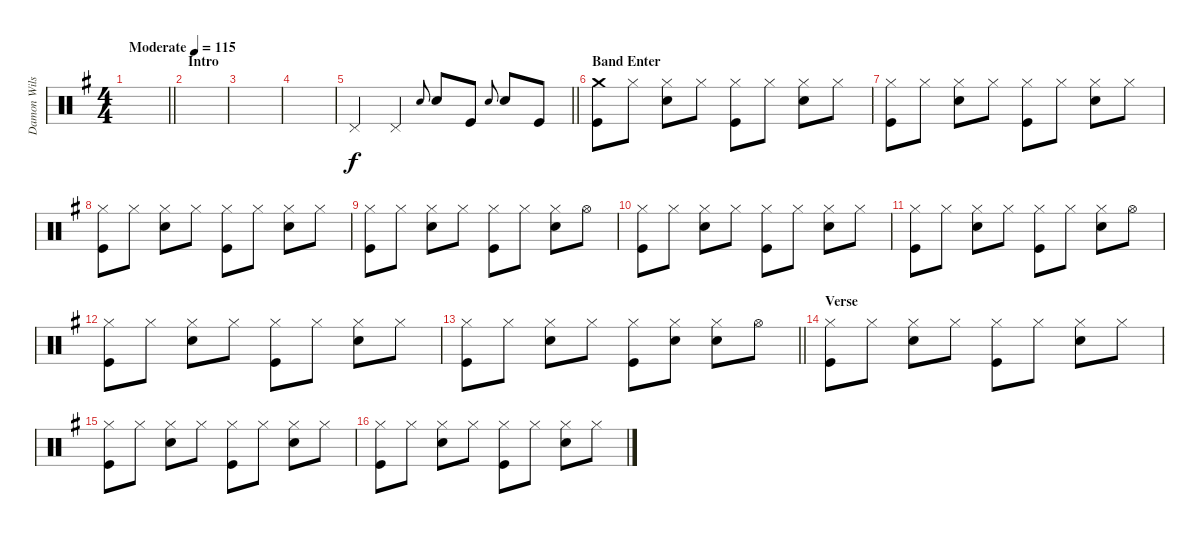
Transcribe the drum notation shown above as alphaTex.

\track ("Damon Wilson" "Damon Wils") {instrument percussion}
\staff {score}
\articulation defaults
\ts (4 4)
\tempo (115 "Moderate")
\clef neutral
\barLineRight lightlight
\ks g
|
\section ("" "Intro")
|
|
|
\barLineRight lightlight "Pedal Hi-Hat (hit)".4 "Pedal Hi-Hat (hit)".4 "Electric Snare (hit)".8{gr onbeat} "Electric Snare (hit)".8 "Kick (hit)".8 "Electric Snare (hit)".8{gr onbeat} "Electric Snare (hit)".8 "Kick (hit)".8
|
\section ("" "Band Enter")
("Crash medium (hit)" "Kick (hit)").8 "Hi-Hat (closed)".8 ("Hi-Hat (closed)" "Electric Snare (hit)").8 "Hi-Hat (closed)".8 ("Hi-Hat (closed)" "Kick (hit)").8 "Hi-Hat (closed)".8 ("Hi-Hat (closed)" "Electric Snare (hit)").8 "Hi-Hat (closed)".8 |
("Hi-Hat (closed)" "Kick (hit)").8 "Hi-Hat (closed)".8 ("Hi-Hat (closed)" "Electric Snare (hit)").8 "Hi-Hat (closed)".8 ("Hi-Hat (closed)" "Kick (hit)").8 "Hi-Hat (closed)".8 ("Hi-Hat (closed)" "Electric Snare (hit)").8 "Hi-Hat (closed)".8 |
("Hi-Hat (closed)" "Kick (hit)").8 "Hi-Hat (closed)".8 ("Hi-Hat (closed)" "Electric Snare (hit)").8 "Hi-Hat (closed)".8 ("Hi-Hat (closed)" "Kick (hit)").8 "Hi-Hat (closed)".8 ("Hi-Hat (closed)" "Electric Snare (hit)").8 "Hi-Hat (closed)".8 |
("Hi-Hat (closed)" "Kick (hit)").8 "Hi-Hat (closed)".8 ("Hi-Hat (closed)" "Electric Snare (hit)").8 "Hi-Hat (closed)".8 ("Hi-Hat (closed)" "Kick (hit)").8 "Hi-Hat (closed)".8 ("Hi-Hat (closed)" "Electric Snare (hit)").8 "Hi-Hat (open)".8 |
("Hi-Hat (closed)" "Kick (hit)").8 "Hi-Hat (closed)".8 ("Hi-Hat (closed)" "Electric Snare (hit)").8 "Hi-Hat (closed)".8 ("Hi-Hat (closed)" "Kick (hit)").8 "Hi-Hat (closed)".8 ("Hi-Hat (closed)" "Electric Snare (hit)").8 "Hi-Hat (closed)".8 |
("Hi-Hat (closed)" "Kick (hit)").8 "Hi-Hat (closed)".8 ("Hi-Hat (closed)" "Electric Snare (hit)").8 "Hi-Hat (closed)".8 ("Hi-Hat (closed)" "Kick (hit)").8 "Hi-Hat (closed)".8 ("Hi-Hat (closed)" "Electric Snare (hit)").8 "Hi-Hat (open)".8 |
("Hi-Hat (closed)" "Kick (hit)").8 "Hi-Hat (closed)".8 ("Hi-Hat (closed)" "Electric Snare (hit)").8 "Hi-Hat (closed)".8 ("Hi-Hat (closed)" "Kick (hit)").8 "Hi-Hat (closed)".8 ("Hi-Hat (closed)" "Electric Snare (hit)").8 "Hi-Hat (closed)".8 |
\barLineRight lightlight
("Hi-Hat (closed)" "Kick (hit)").8 "Hi-Hat (closed)".8 ("Hi-Hat (closed)" "Electric Snare (hit)").8 "Hi-Hat (closed)".8 ("Hi-Hat (closed)" "Kick (hit)").8 ("Hi-Hat (closed)" "Electric Snare (hit)").8 ("Hi-Hat (closed)" "Electric Snare (hit)").8 "Hi-Hat (open)".8 |
\section ("" "Verse")
("Hi-Hat (closed)" "Kick (hit)").8 "Hi-Hat (closed)".8 ("Hi-Hat (closed)" "Electric Snare (hit)").8 "Hi-Hat (closed)".8 ("Hi-Hat (closed)" "Kick (hit)").8 "Hi-Hat (closed)".8 ("Hi-Hat (closed)" "Electric Snare (hit)").8 "Hi-Hat (closed)".8 |
("Hi-Hat (closed)" "Kick (hit)").8 "Hi-Hat (closed)".8 ("Hi-Hat (closed)" "Electric Snare (hit)").8 "Hi-Hat (closed)".8 ("Hi-Hat (closed)" "Kick (hit)").8 "Hi-Hat (closed)".8 ("Hi-Hat (closed)" "Electric Snare (hit)").8 "Hi-Hat (closed)".8 |
("Hi-Hat (closed)" "Kick (hit)").8 "Hi-Hat (closed)".8 ("Hi-Hat (closed)" "Electric Snare (hit)").8 "Hi-Hat (closed)".8 ("Hi-Hat (closed)" "Kick (hit)").8 "Hi-Hat (closed)".8 ("Hi-Hat (closed)" "Electric Snare (hit)").8 "Hi-Hat (closed)".8
